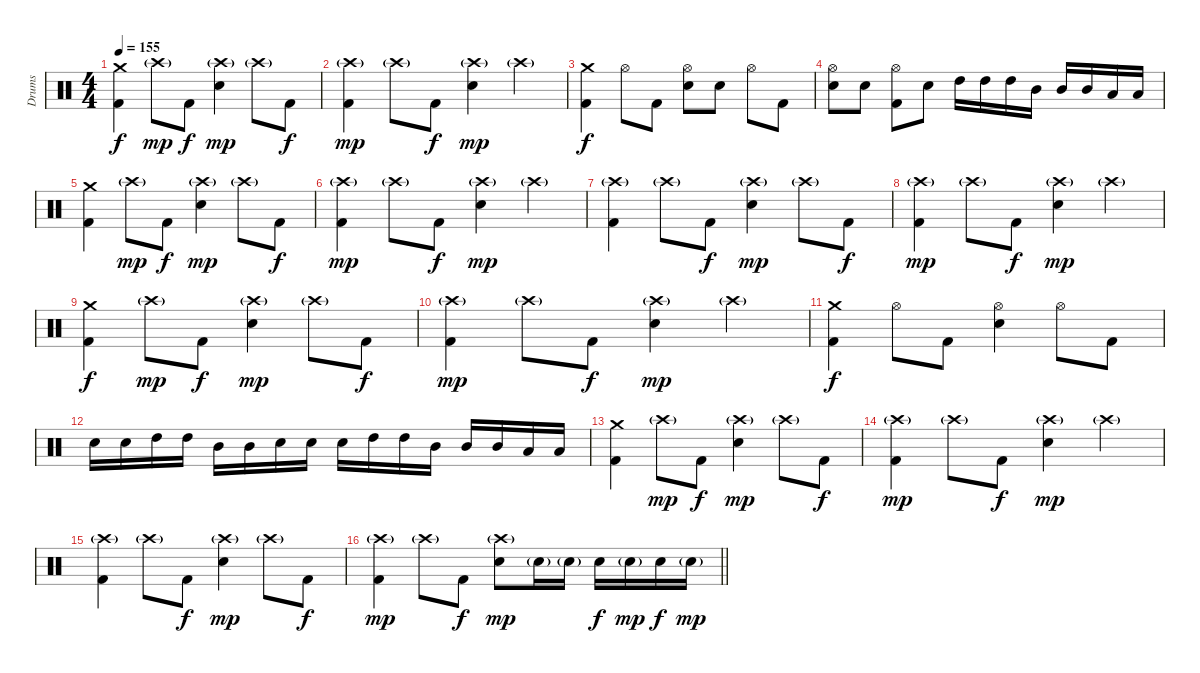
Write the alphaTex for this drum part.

\track ("Drums" "Drums") {instrument percussion}
\staff {score}
\articulation defaults
\ts (4 4)
\tempo 155
\clef neutral
\ks c
("Crash medium (hit)" "Kick (hit) 2").4{dy f} "Crash high (hit)"{g}.8{dy mp} "Kick (hit) 2".8{dy f} ("Crash high (hit)"{g} "Electric Snare (hit)").4{dy mp} "Crash high (hit)"{g}.8 "Kick (hit) 2".8{dy f} |
("Crash high (hit)"{g} "Kick (hit) 2").4{dy mp} "Crash high (hit)"{g}.8 "Kick (hit) 2".8{dy f} ("Crash high (hit)"{g} "Electric Snare (hit)").4{dy mp} "Crash high (hit)"{g}.4 |
("Crash medium (hit)" "Kick (hit) 2").4{dy f} "Hi-Hat (open)".8 "Kick (hit) 2".8 ("Hi-Hat (open)" "Electric Snare (hit)").8 "Electric Snare (hit)".8 "Hi-Hat (open)".8 "Kick (hit) 2".8 |
("Hi-Hat (open)" "Electric Snare (hit)").8 "Electric Snare (hit)".8 ("Hi-Hat (open)" "Kick (hit) 2").8 "Electric Snare (hit)".8 "High Tom (hit)".16 "High Tom (hit)".16 "High Tom (hit)".16 "Mid Tom (hit)".16 "Mid Tom (hit)".16 "Mid Tom (hit)".16 "Low Tom (hit)".16 "Low Tom (hit)".16 |
("Crash medium (hit)" "Kick (hit) 2").4 "Crash high (hit)"{g}.8{dy mp} "Kick (hit) 2".8{dy f} ("Crash high (hit)"{g} "Electric Snare (hit)").4{dy mp} "Crash high (hit)"{g}.8 "Kick (hit) 2".8{dy f} |
("Crash high (hit)"{g} "Kick (hit) 2").4{dy mp} "Crash high (hit)"{g}.8 "Kick (hit) 2".8{dy f} ("Crash high (hit)"{g} "Electric Snare (hit)").4{dy mp} "Crash high (hit)"{g}.4 |
("Crash high (hit)"{g} "Kick (hit) 2").4 "Crash high (hit)"{g}.8 "Kick (hit) 2".8{dy f} ("Crash high (hit)"{g} "Electric Snare (hit)").4{dy mp} "Crash high (hit)"{g}.8 "Kick (hit) 2".8{dy f} |
("Crash high (hit)"{g} "Kick (hit) 2").4{dy mp} "Crash high (hit)"{g}.8 "Kick (hit) 2".8{dy f} ("Crash high (hit)"{g} "Electric Snare (hit)").4{dy mp} "Crash high (hit)"{g}.4 |
("Crash medium (hit)" "Kick (hit) 2").4{dy f} "Crash high (hit)"{g}.8{dy mp} "Kick (hit) 2".8{dy f} ("Crash high (hit)"{g} "Electric Snare (hit)").4{dy mp} "Crash high (hit)"{g}.8 "Kick (hit) 2".8{dy f} |
("Crash high (hit)"{g} "Kick (hit) 2").4{dy mp} "Crash high (hit)"{g}.8 "Kick (hit) 2".8{dy f} ("Crash high (hit)"{g} "Electric Snare (hit)").4{dy mp} "Crash high (hit)"{g}.4 |
("Crash medium (hit)" "Kick (hit) 2").4{dy f} "Hi-Hat (open)".8 "Kick (hit) 2".8 ("Hi-Hat (open)" "Electric Snare (hit)").4 "Hi-Hat (open)".8 "Kick (hit) 2".8 |
"Electric Snare (hit)".16 "Electric Snare (hit)".16 "High Tom (hit)".16 "High Tom (hit)".16 "Mid Tom (hit)".16 "Mid Tom (hit)".16 "Electric Snare (hit)".16 "Electric Snare (hit)".16 "Electric Snare (hit)".16 "High Tom (hit)".16 "High Tom (hit)".16 "Mid Tom (hit)".16 "Mid Tom (hit)".16 "Mid Tom (hit)".16 "Low Tom (hit)".16 "Low Tom (hit)".16 |
("Crash medium (hit)" "Kick (hit) 2").4 "Crash high (hit)"{g}.8{dy mp} "Kick (hit) 2".8{dy f} ("Crash high (hit)"{g} "Electric Snare (hit)").4{dy mp} "Crash high (hit)"{g}.8 "Kick (hit) 2".8{dy f} |
("Crash high (hit)"{g} "Kick (hit) 2").4{dy mp} "Crash high (hit)"{g}.8 "Kick (hit) 2".8{dy f} ("Crash high (hit)"{g} "Electric Snare (hit)").4{dy mp} "Crash high (hit)"{g}.4 |
("Crash high (hit)"{g} "Kick (hit) 2").4 "Crash high (hit)"{g}.8 "Kick (hit) 2".8{dy f} ("Crash high (hit)"{g} "Electric Snare (hit)").4{dy mp} "Crash high (hit)"{g}.8 "Kick (hit) 2".8{dy f} |
\barLineRight lightlight
("Crash high (hit)"{g} "Kick (hit) 2").4{dy mp} "Crash high (hit)"{g}.8 "Kick (hit) 2".8{dy f} ("Crash high (hit)"{g} "Electric Snare (hit)").8{dy mp} "Electric Snare (hit)"{g}.16 "Electric Snare (hit)"{g}.16 "Electric Snare (hit)".16{dy f} "Electric Snare (hit)"{g}.16{dy mp} "Electric Snare (hit)".16{dy f} "Electric Snare (hit)"{g}.16{dy mp}
